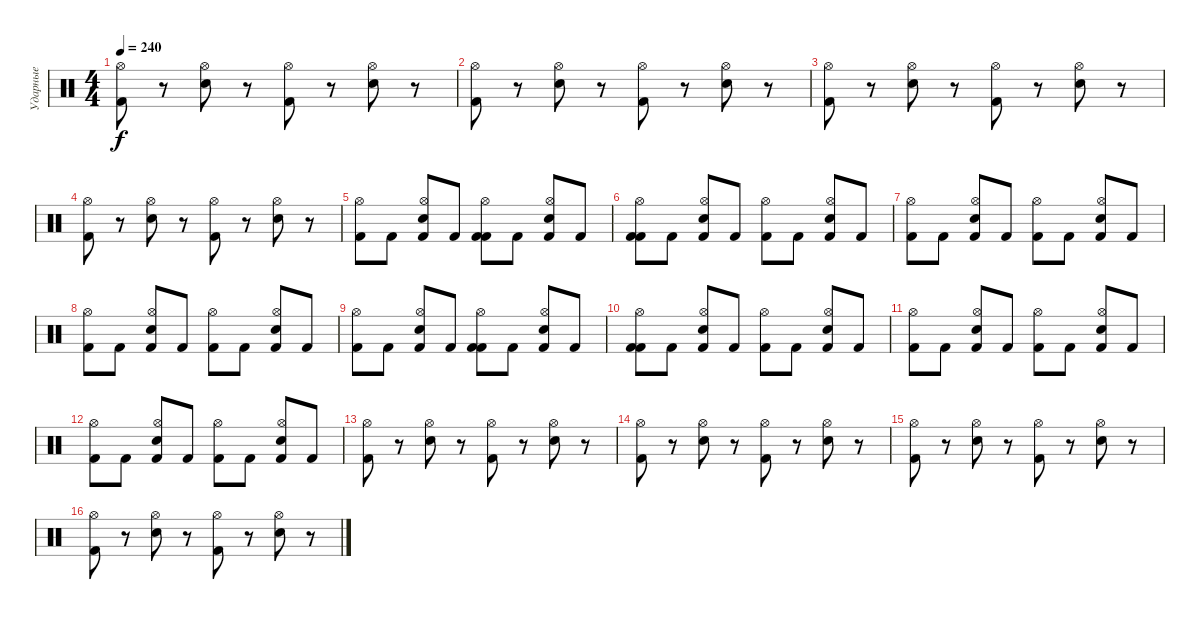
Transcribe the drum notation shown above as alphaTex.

\track ("Ударные" "Ударные") {instrument percussion}
\staff {score}
\articulation defaults
\ts (4 4)
\tempo 240
\clef neutral
\ks c
("Kick (hit) 2" "Hi-Hat (open)").8{dy f} r.8 ("Electric Snare (hit)" "Hi-Hat (open)").8 r.8 ("Kick (hit) 2" "Hi-Hat (open)").8 r.8 ("Electric Snare (hit)" "Hi-Hat (open)").8 r.8 |
("Kick (hit) 2" "Hi-Hat (open)").8 r.8 ("Electric Snare (hit)" "Hi-Hat (open)").8 r.8 ("Kick (hit) 2" "Hi-Hat (open)").8 r.8 ("Electric Snare (hit)" "Hi-Hat (open)").8 r.8 |
("Kick (hit) 2" "Hi-Hat (open)").8 r.8 ("Electric Snare (hit)" "Hi-Hat (open)").8 r.8 ("Kick (hit) 2" "Hi-Hat (open)").8 r.8 ("Electric Snare (hit)" "Hi-Hat (open)").8 r.8 |
("Kick (hit) 2" "Hi-Hat (open)").8 r.8 ("Electric Snare (hit)" "Hi-Hat (open)").8 r.8 ("Kick (hit) 2" "Hi-Hat (open)").8 r.8 ("Electric Snare (hit)" "Hi-Hat (open)").8 r.8 |
("Kick (hit) 2" "Hi-Hat (open)").8 "Kick (hit) 2".8 ("Electric Snare (hit)" "Hi-Hat (open)" "Kick (hit) 2").8 "Kick (hit) 2".8 ("Kick (hit) 2" "Hi-Hat (open)" "Kick (hit) 2").8 "Kick (hit) 2".8 ("Electric Snare (hit)" "Hi-Hat (open)" "Kick (hit) 2").8 "Kick (hit) 2".8 |
("Kick (hit) 2" "Hi-Hat (open)" "Kick (hit) 2").8 "Kick (hit) 2".8 ("Electric Snare (hit)" "Hi-Hat (open)" "Kick (hit) 2").8 "Kick (hit) 2".8 ("Kick (hit) 2" "Hi-Hat (open)").8 "Kick (hit) 2".8 ("Electric Snare (hit)" "Hi-Hat (open)" "Kick (hit) 2").8 "Kick (hit) 2".8 |
("Kick (hit) 2" "Hi-Hat (open)").8 "Kick (hit) 2".8 ("Electric Snare (hit)" "Hi-Hat (open)" "Kick (hit) 2").8 "Kick (hit) 2".8 ("Kick (hit) 2" "Hi-Hat (open)").8 "Kick (hit) 2".8 ("Electric Snare (hit)" "Hi-Hat (open)" "Kick (hit) 2").8 "Kick (hit) 2".8 |
("Kick (hit) 2" "Hi-Hat (open)").8 "Kick (hit) 2".8 ("Electric Snare (hit)" "Hi-Hat (open)" "Kick (hit) 2").8 "Kick (hit) 2".8 ("Kick (hit) 2" "Hi-Hat (open)").8 "Kick (hit) 2".8 ("Electric Snare (hit)" "Hi-Hat (open)" "Kick (hit) 2").8 "Kick (hit) 2".8 |
("Kick (hit) 2" "Hi-Hat (open)").8 "Kick (hit) 2".8 ("Electric Snare (hit)" "Hi-Hat (open)" "Kick (hit) 2").8 "Kick (hit) 2".8 ("Kick (hit) 2" "Hi-Hat (open)" "Kick (hit) 2").8 "Kick (hit) 2".8 ("Electric Snare (hit)" "Hi-Hat (open)" "Kick (hit) 2").8 "Kick (hit) 2".8 |
("Kick (hit) 2" "Hi-Hat (open)" "Kick (hit) 2").8 "Kick (hit) 2".8 ("Electric Snare (hit)" "Hi-Hat (open)" "Kick (hit) 2").8 "Kick (hit) 2".8 ("Kick (hit) 2" "Hi-Hat (open)").8 "Kick (hit) 2".8 ("Electric Snare (hit)" "Hi-Hat (open)" "Kick (hit) 2").8 "Kick (hit) 2".8 |
("Kick (hit) 2" "Hi-Hat (open)").8 "Kick (hit) 2".8 ("Electric Snare (hit)" "Hi-Hat (open)" "Kick (hit) 2").8 "Kick (hit) 2".8 ("Kick (hit) 2" "Hi-Hat (open)").8 "Kick (hit) 2".8 ("Electric Snare (hit)" "Hi-Hat (open)" "Kick (hit) 2").8 "Kick (hit) 2".8 |
("Kick (hit) 2" "Hi-Hat (open)").8 "Kick (hit) 2".8 ("Electric Snare (hit)" "Hi-Hat (open)" "Kick (hit) 2").8 "Kick (hit) 2".8 ("Kick (hit) 2" "Hi-Hat (open)").8 "Kick (hit) 2".8 ("Electric Snare (hit)" "Hi-Hat (open)" "Kick (hit) 2").8 "Kick (hit) 2".8 |
("Kick (hit) 2" "Hi-Hat (open)").8 r.8 ("Electric Snare (hit)" "Hi-Hat (open)").8 r.8 ("Kick (hit) 2" "Hi-Hat (open)").8 r.8 ("Electric Snare (hit)" "Hi-Hat (open)").8 r.8 |
("Kick (hit) 2" "Hi-Hat (open)").8 r.8 ("Electric Snare (hit)" "Hi-Hat (open)").8 r.8 ("Kick (hit) 2" "Hi-Hat (open)").8 r.8 ("Electric Snare (hit)" "Hi-Hat (open)").8 r.8 |
("Kick (hit) 2" "Hi-Hat (open)").8 r.8 ("Electric Snare (hit)" "Hi-Hat (open)").8 r.8 ("Kick (hit) 2" "Hi-Hat (open)").8 r.8 ("Electric Snare (hit)" "Hi-Hat (open)").8 r.8 |
("Kick (hit) 2" "Hi-Hat (open)").8 r.8 ("Electric Snare (hit)" "Hi-Hat (open)").8 r.8 ("Kick (hit) 2" "Hi-Hat (open)").8 r.8 ("Electric Snare (hit)" "Hi-Hat (open)").8 r.8
